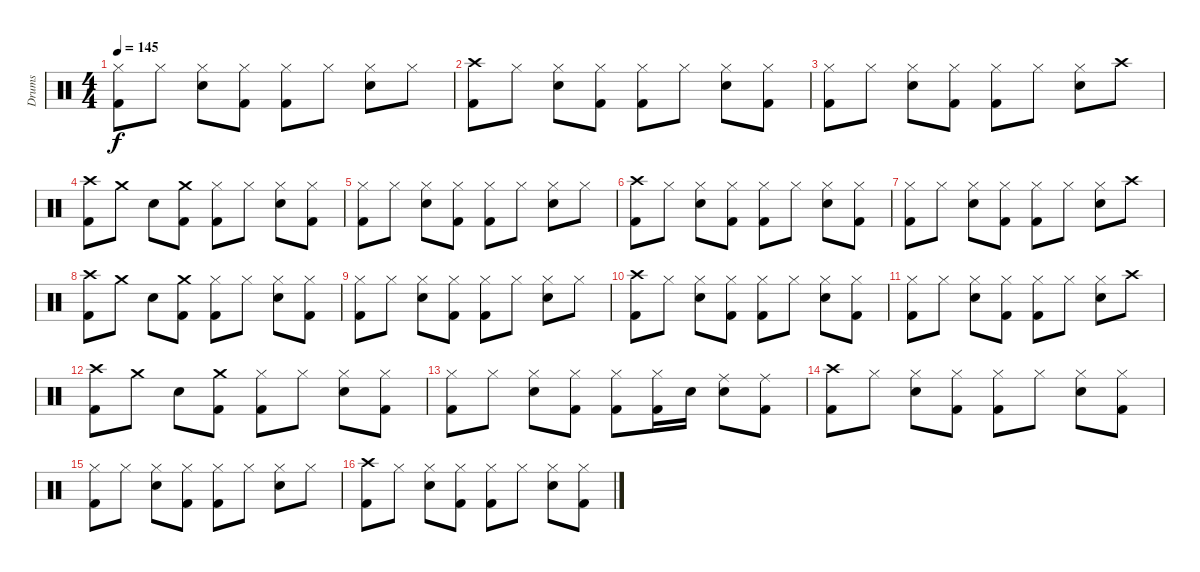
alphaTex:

\track ("Drums" "Drums") {instrument percussion}
\staff {score}
\articulation defaults
\ts (4 4)
\tempo 145
\clef neutral
\ks c
("Kick (hit) 2" "Hi-Hat (closed)").8{dy f} "Hi-Hat (closed)".8 ("Electric Snare (hit)" "Hi-Hat (closed)").8 ("Kick (hit) 2" "Hi-Hat (closed)").8 ("Kick (hit) 2" "Hi-Hat (closed)").8 "Hi-Hat (closed)".8 ("Electric Snare (hit)" "Hi-Hat (closed)").8 "Hi-Hat (closed)".8 |
("Kick (hit) 2" "Crash high (hit)").8 "Hi-Hat (closed)".8 ("Electric Snare (hit)" "Hi-Hat (closed)").8 ("Kick (hit) 2" "Hi-Hat (closed)").8 ("Kick (hit) 2" "Hi-Hat (closed)").8 "Hi-Hat (closed)".8 ("Electric Snare (hit)" "Hi-Hat (closed)").8 ("Kick (hit) 2" "Hi-Hat (closed)").8 |
("Kick (hit) 2" "Hi-Hat (closed)").8 "Hi-Hat (closed)".8 ("Electric Snare (hit)" "Hi-Hat (closed)").8 ("Kick (hit) 2" "Hi-Hat (closed)").8 ("Kick (hit) 2" "Hi-Hat (closed)").8 "Hi-Hat (closed)".8 ("Electric Snare (hit)" "Hi-Hat (closed)").8 "Crash high (hit)".8 |
("Kick (hit) 2" "Crash high (hit)").8 "Crash medium (hit)".8 "Electric Snare (hit)".8 ("Kick (hit) 2" "Crash medium (hit)").8 ("Kick (hit) 2" "Hi-Hat (closed)").8 "Hi-Hat (closed)".8 ("Electric Snare (hit)" "Hi-Hat (closed)").8 ("Kick (hit) 2" "Hi-Hat (closed)").8 |
("Kick (hit) 2" "Hi-Hat (closed)").8 "Hi-Hat (closed)".8 ("Electric Snare (hit)" "Hi-Hat (closed)").8 ("Kick (hit) 2" "Hi-Hat (closed)").8 ("Kick (hit) 2" "Hi-Hat (closed)").8 "Hi-Hat (closed)".8 ("Electric Snare (hit)" "Hi-Hat (closed)").8 "Hi-Hat (closed)".8 |
("Kick (hit) 2" "Crash high (hit)").8 "Hi-Hat (closed)".8 ("Electric Snare (hit)" "Hi-Hat (closed)").8 ("Kick (hit) 2" "Hi-Hat (closed)").8 ("Kick (hit) 2" "Hi-Hat (closed)").8 "Hi-Hat (closed)".8 ("Electric Snare (hit)" "Hi-Hat (closed)").8 ("Kick (hit) 2" "Hi-Hat (closed)").8 |
("Kick (hit) 2" "Hi-Hat (closed)").8 "Hi-Hat (closed)".8 ("Electric Snare (hit)" "Hi-Hat (closed)").8 ("Kick (hit) 2" "Hi-Hat (closed)").8 ("Kick (hit) 2" "Hi-Hat (closed)").8 "Hi-Hat (closed)".8 ("Electric Snare (hit)" "Hi-Hat (closed)").8 "Crash high (hit)".8 |
("Kick (hit) 2" "Crash high (hit)").8 "Crash medium (hit)".8 "Electric Snare (hit)".8 ("Kick (hit) 2" "Crash medium (hit)").8 ("Kick (hit) 2" "Hi-Hat (closed)").8 "Hi-Hat (closed)".8 ("Electric Snare (hit)" "Hi-Hat (closed)").8 ("Kick (hit) 2" "Hi-Hat (closed)").8 |
("Kick (hit) 2" "Hi-Hat (closed)").8 "Hi-Hat (closed)".8 ("Electric Snare (hit)" "Hi-Hat (closed)").8 ("Kick (hit) 2" "Hi-Hat (closed)").8 ("Kick (hit) 2" "Hi-Hat (closed)").8 "Hi-Hat (closed)".8 ("Electric Snare (hit)" "Hi-Hat (closed)").8 "Hi-Hat (closed)".8 |
("Kick (hit) 2" "Crash high (hit)").8 "Hi-Hat (closed)".8 ("Electric Snare (hit)" "Hi-Hat (closed)").8 ("Kick (hit) 2" "Hi-Hat (closed)").8 ("Kick (hit) 2" "Hi-Hat (closed)").8 "Hi-Hat (closed)".8 ("Electric Snare (hit)" "Hi-Hat (closed)").8 ("Kick (hit) 2" "Hi-Hat (closed)").8 |
("Kick (hit) 2" "Hi-Hat (closed)").8 "Hi-Hat (closed)".8 ("Electric Snare (hit)" "Hi-Hat (closed)").8 ("Kick (hit) 2" "Hi-Hat (closed)").8 ("Kick (hit) 2" "Hi-Hat (closed)").8 "Hi-Hat (closed)".8 ("Electric Snare (hit)" "Hi-Hat (closed)").8 "Crash high (hit)".8 |
("Kick (hit) 2" "Crash high (hit)").8 "Crash medium (hit)".8 "Electric Snare (hit)".8 ("Kick (hit) 2" "Crash medium (hit)").8 ("Kick (hit) 2" "Hi-Hat (closed)").8 "Hi-Hat (closed)".8 ("Electric Snare (hit)" "Hi-Hat (closed)").8 ("Kick (hit) 2" "Hi-Hat (closed)").8 |
("Kick (hit) 2" "Hi-Hat (closed)").8 "Hi-Hat (closed)".8 ("Electric Snare (hit)" "Hi-Hat (closed)").8 ("Kick (hit) 2" "Hi-Hat (closed)").8 ("Kick (hit) 2" "Hi-Hat (closed)").8 ("Kick (hit) 2" "Hi-Hat (closed)").16 "Electric Snare (hit)".16 ("Electric Snare (hit)" "Ride (middle)").8 ("Kick (hit) 2" "Ride (middle)").8 |
("Kick (hit) 2" "Crash high (hit)").8 "Hi-Hat (closed)".8 ("Electric Snare (hit)" "Hi-Hat (closed)").8 ("Kick (hit) 2" "Hi-Hat (closed)").8 ("Kick (hit) 2" "Hi-Hat (closed)").8 "Hi-Hat (closed)".8 ("Electric Snare (hit)" "Hi-Hat (closed)").8 ("Kick (hit) 2" "Hi-Hat (closed)").8 |
("Kick (hit) 2" "Hi-Hat (closed)").8 "Hi-Hat (closed)".8 ("Electric Snare (hit)" "Hi-Hat (closed)").8 ("Kick (hit) 2" "Hi-Hat (closed)").8 ("Kick (hit) 2" "Hi-Hat (closed)").8 "Hi-Hat (closed)".8 ("Electric Snare (hit)" "Hi-Hat (closed)").8 "Hi-Hat (closed)".8 |
("Kick (hit) 2" "Crash high (hit)").8 "Hi-Hat (closed)".8 ("Electric Snare (hit)" "Hi-Hat (closed)").8 ("Kick (hit) 2" "Hi-Hat (closed)").8 ("Kick (hit) 2" "Hi-Hat (closed)").8 "Hi-Hat (closed)".8 ("Electric Snare (hit)" "Hi-Hat (closed)").8 ("Kick (hit) 2" "Hi-Hat (closed)").8
